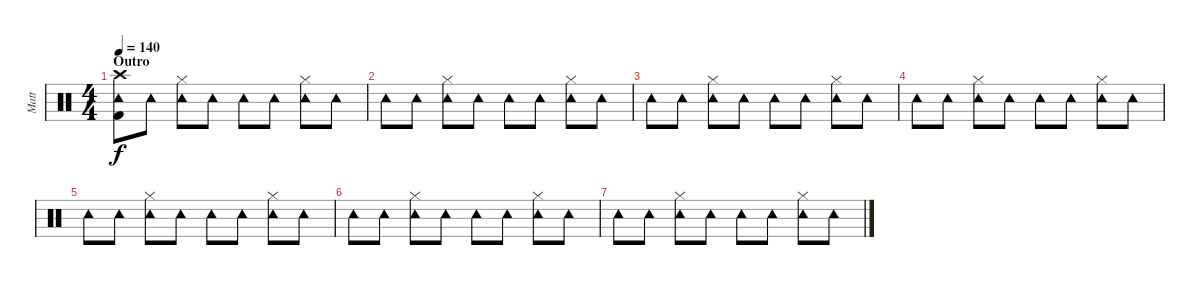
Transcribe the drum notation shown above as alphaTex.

\track ("Matt" "Matt") {instrument percussion}
\staff {score}
\articulation defaults
\ts (4 4)
\section ("" "Outro")
\tempo 140
\clef neutral
\ks c
("Crash high (hit)" "Tambourine (hit)" "Kick (hit) 2").8{dy f} "Tambourine (hit)".8 ("Hi-Hat (closed)" "Tambourine (hit)").8 "Tambourine (hit)".8 "Tambourine (hit)".8 "Tambourine (hit)".8 ("Hi-Hat (closed)" "Tambourine (hit)").8 "Tambourine (hit)".8 |
"Tambourine (hit)".8 "Tambourine (hit)".8 ("Hi-Hat (closed)" "Tambourine (hit)").8 "Tambourine (hit)".8 "Tambourine (hit)".8 "Tambourine (hit)".8 ("Hi-Hat (closed)" "Tambourine (hit)").8 "Tambourine (hit)".8 |
"Tambourine (hit)".8 "Tambourine (hit)".8 ("Hi-Hat (closed)" "Tambourine (hit)").8 "Tambourine (hit)".8 "Tambourine (hit)".8 "Tambourine (hit)".8 ("Hi-Hat (closed)" "Tambourine (hit)").8 "Tambourine (hit)".8 |
"Tambourine (hit)".8 "Tambourine (hit)".8 ("Hi-Hat (closed)" "Tambourine (hit)").8 "Tambourine (hit)".8 "Tambourine (hit)".8 "Tambourine (hit)".8 ("Hi-Hat (closed)" "Tambourine (hit)").8 "Tambourine (hit)".8 |
"Tambourine (hit)".8 "Tambourine (hit)".8 ("Hi-Hat (closed)" "Tambourine (hit)").8 "Tambourine (hit)".8 "Tambourine (hit)".8 "Tambourine (hit)".8 ("Hi-Hat (closed)" "Tambourine (hit)").8 "Tambourine (hit)".8 |
"Tambourine (hit)".8 "Tambourine (hit)".8 ("Hi-Hat (closed)" "Tambourine (hit)").8 "Tambourine (hit)".8 "Tambourine (hit)".8 "Tambourine (hit)".8 ("Hi-Hat (closed)" "Tambourine (hit)").8 "Tambourine (hit)".8 |
"Tambourine (hit)".8 "Tambourine (hit)".8 ("Hi-Hat (closed)" "Tambourine (hit)").8 "Tambourine (hit)".8 "Tambourine (hit)".8 "Tambourine (hit)".8 ("Hi-Hat (closed)" "Tambourine (hit)").8 "Tambourine (hit)".8
